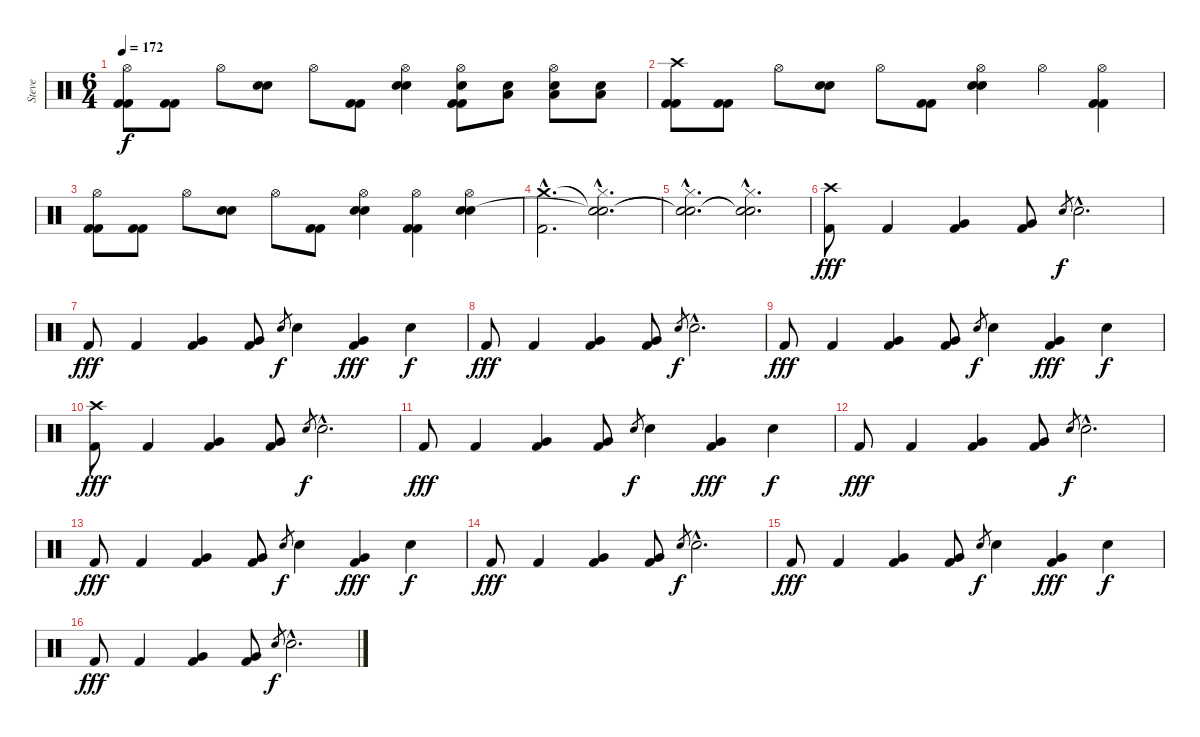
\track ("Steve" "Steve") {instrument percussion}
\staff {score}
\articulation defaults
\ts (6 4)
\tempo 172
\clef neutral
\ks c
("Hi-Hat (open)" "Kick (hit) 2" "Kick (hit) 2").8{dy f} ("Kick (hit) 2" "Kick (hit) 2").8 "Hi-Hat (open)".8 ("Electric Snare (hit)" "Electric Snare (hit)").8 "Hi-Hat (open)".8 ("Kick (hit) 2" "Kick (hit) 2").8 ("Hi-Hat (open)" "Electric Snare (hit)" "Electric Snare (hit)").4 ("Hi-Hat (open)" "Electric Snare (hit)" "Kick (hit) 2" "Kick (hit) 2").8 ("Electric Snare (hit)" "Low Tom (hit)").8 ("Hi-Hat (open)" "Electric Snare (hit)" "Low Tom (hit)").8 ("Electric Snare (hit)" "Low Tom (hit)").8 |
("Crash high (hit)" "Kick (hit) 2" "Kick (hit) 2").8{volume 16} ("Kick (hit) 2" "Kick (hit) 2").8 "Hi-Hat (open)".8 ("Electric Snare (hit)" "Electric Snare (hit)").8 "Hi-Hat (open)".8 ("Kick (hit) 2" "Kick (hit) 2").8 ("Hi-Hat (open)" "Electric Snare (hit)" "Electric Snare (hit)").4 "Hi-Hat (open)".4 ("Hi-Hat (open)" "Kick (hit) 2" "Kick (hit) 2").4 |
("Hi-Hat (open)" "Kick (hit) 2" "Kick (hit) 2").8 ("Kick (hit) 2" "Kick (hit) 2").8 "Hi-Hat (open)".8 ("Electric Snare (hit)" "Electric Snare (hit)").8 "Hi-Hat (open)".8 ("Kick (hit) 2" "Kick (hit) 2").8 ("Hi-Hat (open)" "Electric Snare (hit)" "Electric Snare (hit)").4 ("Hi-Hat (open)" "Kick (hit) 2" "Kick (hit) 2").4 ("Hi-Hat (open)" "Electric Snare (hit)" "Electric Snare (hit)").4 |
("Crash medium (hit)"{hac} "Kick (hit) 2"{hac}).2{d} ("Snare (hit)"{hac t} "Hi-Hat (closed)"{hac} "Snare (hit)"{hac t}).2{d} |
("Snare (hit)"{hac t} "Hi-Hat (closed)"{hac} "Snare (hit)"{hac t}).2{d} ("Snare (hit)"{hac t} "Hi-Hat (closed)"{hac} "Snare (hit)"{hac t}).2{d} |
("Crash high (hit)" "Kick (hit) 2").8{dy fff} "Kick (hit) 2".4 ("Very Low Tom (hit)" "Kick (hit) 2").4 ("Very Low Tom (hit)" "Kick (hit) 2").8 "Electric Snare (hit)".8{gr dy f} "Electric Snare (hit)"{hac}.2{d} |
"Kick (hit) 2".8{dy fff} "Kick (hit) 2".4 ("Very Low Tom (hit)" "Kick (hit) 2").4 ("Very Low Tom (hit)" "Kick (hit) 2").8 "Electric Snare (hit)".8{gr dy f} "Electric Snare (hit)".4 ("Very Low Tom (hit)" "Kick (hit) 2").4{dy fff} "Electric Snare (hit)".4{dy f} |
"Kick (hit) 2".8{dy fff} "Kick (hit) 2".4 ("Very Low Tom (hit)" "Kick (hit) 2").4 ("Very Low Tom (hit)" "Kick (hit) 2").8 "Electric Snare (hit)".8{gr dy f} "Electric Snare (hit)"{hac}.2{d} |
"Kick (hit) 2".8{dy fff} "Kick (hit) 2".4 ("Very Low Tom (hit)" "Kick (hit) 2").4 ("Very Low Tom (hit)" "Kick (hit) 2").8 "Electric Snare (hit)".8{gr dy f} "Electric Snare (hit)".4 ("Very Low Tom (hit)" "Kick (hit) 2").4{dy fff} "Electric Snare (hit)".4{dy f} |
("Crash high (hit)" "Kick (hit) 2").8{dy fff} "Kick (hit) 2".4 ("Very Low Tom (hit)" "Kick (hit) 2").4 ("Very Low Tom (hit)" "Kick (hit) 2").8 "Electric Snare (hit)".8{gr dy f} "Electric Snare (hit)"{hac}.2{d} |
"Kick (hit) 2".8{dy fff} "Kick (hit) 2".4 ("Very Low Tom (hit)" "Kick (hit) 2").4 ("Very Low Tom (hit)" "Kick (hit) 2").8 "Electric Snare (hit)".8{gr dy f} "Electric Snare (hit)".4 ("Very Low Tom (hit)" "Kick (hit) 2").4{dy fff} "Electric Snare (hit)".4{dy f} |
"Kick (hit) 2".8{dy fff} "Kick (hit) 2".4 ("Very Low Tom (hit)" "Kick (hit) 2").4 ("Very Low Tom (hit)" "Kick (hit) 2").8 "Electric Snare (hit)".8{gr dy f} "Electric Snare (hit)"{hac}.2{d} |
"Kick (hit) 2".8{dy fff} "Kick (hit) 2".4 ("Very Low Tom (hit)" "Kick (hit) 2").4 ("Very Low Tom (hit)" "Kick (hit) 2").8 "Electric Snare (hit)".8{gr dy f} "Electric Snare (hit)".4 ("Very Low Tom (hit)" "Kick (hit) 2").4{dy fff} "Electric Snare (hit)".4{dy f} |
"Kick (hit) 2".8{dy fff} "Kick (hit) 2".4 ("Very Low Tom (hit)" "Kick (hit) 2").4 ("Very Low Tom (hit)" "Kick (hit) 2").8 "Electric Snare (hit)".8{gr dy f} "Electric Snare (hit)"{hac}.2{d} |
"Kick (hit) 2".8{dy fff} "Kick (hit) 2".4 ("Very Low Tom (hit)" "Kick (hit) 2").4 ("Very Low Tom (hit)" "Kick (hit) 2").8 "Electric Snare (hit)".8{gr dy f} "Electric Snare (hit)".4 ("Very Low Tom (hit)" "Kick (hit) 2").4{dy fff} "Electric Snare (hit)".4{dy f} |
"Kick (hit) 2".8{dy fff} "Kick (hit) 2".4 ("Very Low Tom (hit)" "Kick (hit) 2").4 ("Very Low Tom (hit)" "Kick (hit) 2").8 "Electric Snare (hit)".8{gr dy f} "Electric Snare (hit)"{hac}.2{d}
